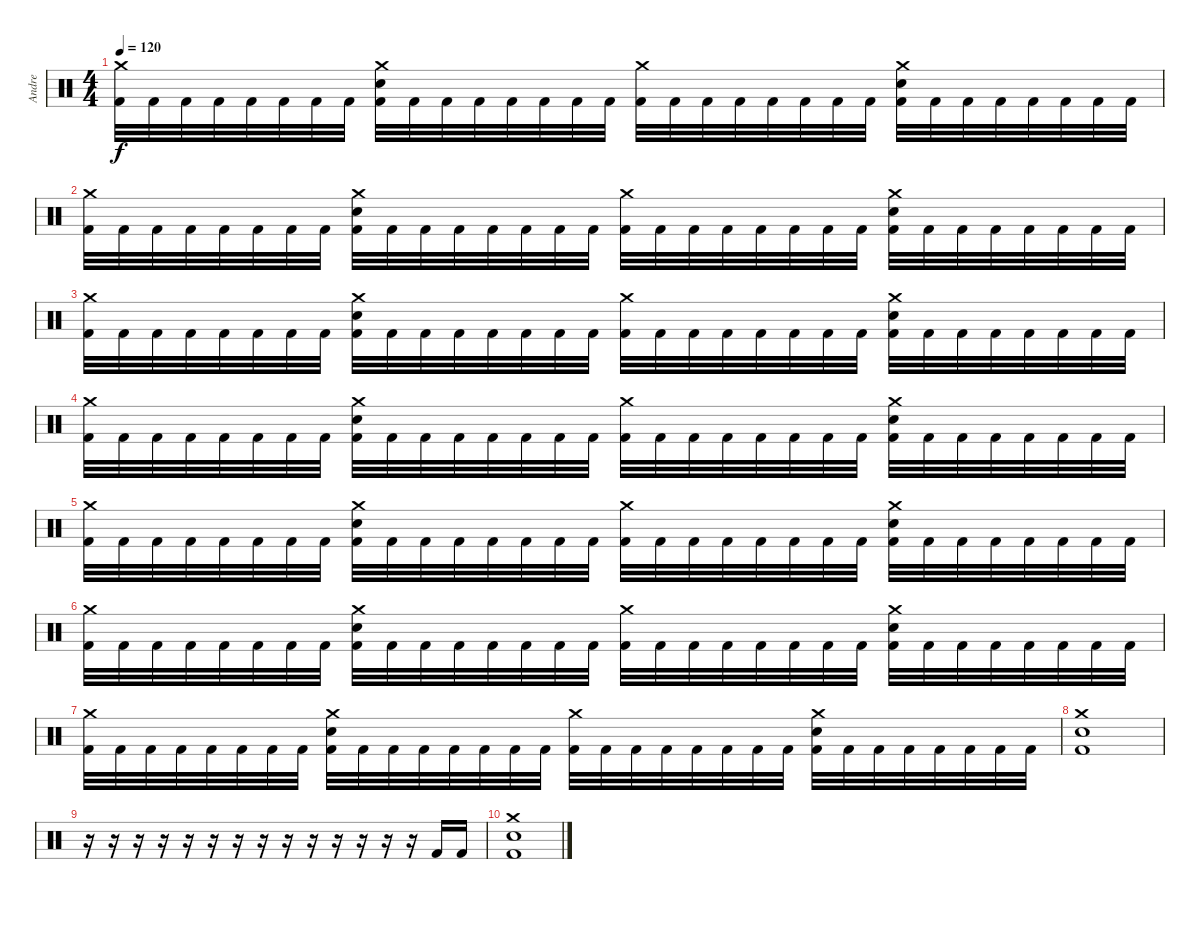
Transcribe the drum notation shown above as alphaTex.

\track ("Andre" "Andre") {instrument percussion}
\staff {score}
\articulation defaults
\ts (4 4)
\tempo 120
\clef neutral
\ks c
("Crash medium (hit)" "Kick (hit) 2").32{dy f} "Kick (hit) 2".32 "Kick (hit) 2".32 "Kick (hit) 2".32 "Kick (hit) 2".32 "Kick (hit) 2".32 "Kick (hit) 2".32 "Kick (hit) 2".32 ("Crash medium (hit)" "Snare (hit) 2" "Kick (hit) 2").32 "Kick (hit) 2".32 "Kick (hit) 2".32 "Kick (hit) 2".32 "Kick (hit) 2".32 "Kick (hit) 2".32 "Kick (hit) 2".32 "Kick (hit) 2".32 ("Crash medium (hit)" "Kick (hit) 2").32 "Kick (hit) 2".32 "Kick (hit) 2".32 "Kick (hit) 2".32 "Kick (hit) 2".32 "Kick (hit) 2".32 "Kick (hit) 2".32 "Kick (hit) 2".32 ("Crash medium (hit)" "Snare (hit) 2" "Kick (hit) 2").32 "Kick (hit) 2".32 "Kick (hit) 2".32 "Kick (hit) 2".32 "Kick (hit) 2".32 "Kick (hit) 2".32 "Kick (hit) 2".32 "Kick (hit) 2".32 |
("Crash medium (hit)" "Kick (hit) 2").32 "Kick (hit) 2".32 "Kick (hit) 2".32 "Kick (hit) 2".32 "Kick (hit) 2".32 "Kick (hit) 2".32 "Kick (hit) 2".32 "Kick (hit) 2".32 ("Crash medium (hit)" "Snare (hit) 2" "Kick (hit) 2").32 "Kick (hit) 2".32 "Kick (hit) 2".32 "Kick (hit) 2".32 "Kick (hit) 2".32 "Kick (hit) 2".32 "Kick (hit) 2".32 "Kick (hit) 2".32 ("Crash medium (hit)" "Kick (hit) 2").32 "Kick (hit) 2".32 "Kick (hit) 2".32 "Kick (hit) 2".32 "Kick (hit) 2".32 "Kick (hit) 2".32 "Kick (hit) 2".32 "Kick (hit) 2".32 ("Crash medium (hit)" "Snare (hit) 2" "Kick (hit) 2").32 "Kick (hit) 2".32 "Kick (hit) 2".32 "Kick (hit) 2".32 "Kick (hit) 2".32 "Kick (hit) 2".32 "Kick (hit) 2".32 "Kick (hit) 2".32 |
("Crash medium (hit)" "Kick (hit) 2").32 "Kick (hit) 2".32 "Kick (hit) 2".32 "Kick (hit) 2".32 "Kick (hit) 2".32 "Kick (hit) 2".32 "Kick (hit) 2".32 "Kick (hit) 2".32 ("Crash medium (hit)" "Snare (hit) 2" "Kick (hit) 2").32 "Kick (hit) 2".32 "Kick (hit) 2".32 "Kick (hit) 2".32 "Kick (hit) 2".32 "Kick (hit) 2".32 "Kick (hit) 2".32 "Kick (hit) 2".32 ("Crash medium (hit)" "Kick (hit) 2").32 "Kick (hit) 2".32 "Kick (hit) 2".32 "Kick (hit) 2".32 "Kick (hit) 2".32 "Kick (hit) 2".32 "Kick (hit) 2".32 "Kick (hit) 2".32 ("Crash medium (hit)" "Snare (hit) 2" "Kick (hit) 2").32 "Kick (hit) 2".32 "Kick (hit) 2".32 "Kick (hit) 2".32 "Kick (hit) 2".32 "Kick (hit) 2".32 "Kick (hit) 2".32 "Kick (hit) 2".32 |
("Crash medium (hit)" "Kick (hit) 2").32 "Kick (hit) 2".32 "Kick (hit) 2".32 "Kick (hit) 2".32 "Kick (hit) 2".32 "Kick (hit) 2".32 "Kick (hit) 2".32 "Kick (hit) 2".32 ("Crash medium (hit)" "Snare (hit) 2" "Kick (hit) 2").32 "Kick (hit) 2".32 "Kick (hit) 2".32 "Kick (hit) 2".32 "Kick (hit) 2".32 "Kick (hit) 2".32 "Kick (hit) 2".32 "Kick (hit) 2".32 ("Crash medium (hit)" "Kick (hit) 2").32 "Kick (hit) 2".32 "Kick (hit) 2".32 "Kick (hit) 2".32 "Kick (hit) 2".32 "Kick (hit) 2".32 "Kick (hit) 2".32 "Kick (hit) 2".32 ("Crash medium (hit)" "Snare (hit) 2" "Kick (hit) 2").32 "Kick (hit) 2".32 "Kick (hit) 2".32 "Kick (hit) 2".32 "Kick (hit) 2".32 "Kick (hit) 2".32 "Kick (hit) 2".32 "Kick (hit) 2".32 |
("Crash medium (hit)" "Kick (hit) 2").32 "Kick (hit) 2".32 "Kick (hit) 2".32 "Kick (hit) 2".32 "Kick (hit) 2".32 "Kick (hit) 2".32 "Kick (hit) 2".32 "Kick (hit) 2".32 ("Crash medium (hit)" "Snare (hit) 2" "Kick (hit) 2").32 "Kick (hit) 2".32 "Kick (hit) 2".32 "Kick (hit) 2".32 "Kick (hit) 2".32 "Kick (hit) 2".32 "Kick (hit) 2".32 "Kick (hit) 2".32 ("Crash medium (hit)" "Kick (hit) 2").32 "Kick (hit) 2".32 "Kick (hit) 2".32 "Kick (hit) 2".32 "Kick (hit) 2".32 "Kick (hit) 2".32 "Kick (hit) 2".32 "Kick (hit) 2".32 ("Crash medium (hit)" "Snare (hit) 2" "Kick (hit) 2").32 "Kick (hit) 2".32 "Kick (hit) 2".32 "Kick (hit) 2".32 "Kick (hit) 2".32 "Kick (hit) 2".32 "Kick (hit) 2".32 "Kick (hit) 2".32 |
("Crash medium (hit)" "Kick (hit) 2").32 "Kick (hit) 2".32 "Kick (hit) 2".32 "Kick (hit) 2".32 "Kick (hit) 2".32 "Kick (hit) 2".32 "Kick (hit) 2".32 "Kick (hit) 2".32 ("Crash medium (hit)" "Snare (hit) 2" "Kick (hit) 2").32 "Kick (hit) 2".32 "Kick (hit) 2".32 "Kick (hit) 2".32 "Kick (hit) 2".32 "Kick (hit) 2".32 "Kick (hit) 2".32 "Kick (hit) 2".32 ("Crash medium (hit)" "Kick (hit) 2").32 "Kick (hit) 2".32 "Kick (hit) 2".32 "Kick (hit) 2".32 "Kick (hit) 2".32 "Kick (hit) 2".32 "Kick (hit) 2".32 "Kick (hit) 2".32 ("Crash medium (hit)" "Snare (hit) 2" "Kick (hit) 2").32 "Kick (hit) 2".32 "Kick (hit) 2".32 "Kick (hit) 2".32 "Kick (hit) 2".32 "Kick (hit) 2".32 "Kick (hit) 2".32 "Kick (hit) 2".32 |
("Crash medium (hit)" "Kick (hit) 2").32 "Kick (hit) 2".32 "Kick (hit) 2".32 "Kick (hit) 2".32 "Kick (hit) 2".32 "Kick (hit) 2".32 "Kick (hit) 2".32 "Kick (hit) 2".32 ("Crash medium (hit)" "Snare (hit) 2" "Kick (hit) 2").32 "Kick (hit) 2".32 "Kick (hit) 2".32 "Kick (hit) 2".32 "Kick (hit) 2".32 "Kick (hit) 2".32 "Kick (hit) 2".32 "Kick (hit) 2".32 ("Crash medium (hit)" "Kick (hit) 2").32 "Kick (hit) 2".32 "Kick (hit) 2".32 "Kick (hit) 2".32 "Kick (hit) 2".32 "Kick (hit) 2".32 "Kick (hit) 2".32 "Kick (hit) 2".32 ("Crash medium (hit)" "Snare (hit) 2" "Kick (hit) 2").32 "Kick (hit) 2".32 "Kick (hit) 2".32 "Kick (hit) 2".32 "Kick (hit) 2".32 "Kick (hit) 2".32 "Kick (hit) 2".32 "Kick (hit) 2".32 |
("Crash medium (hit)" "Snare (hit) 2" "Kick (hit) 2").1 |
r.16 r.16 r.16 r.16 r.16 r.16 r.16 r.16 r.16 r.16 r.16 r.16 r.16 r.16 "Kick (hit) 2".16 "Kick (hit) 2".16 |
("Crash medium (hit)" "Snare (hit) 2" "Kick (hit) 2").1
